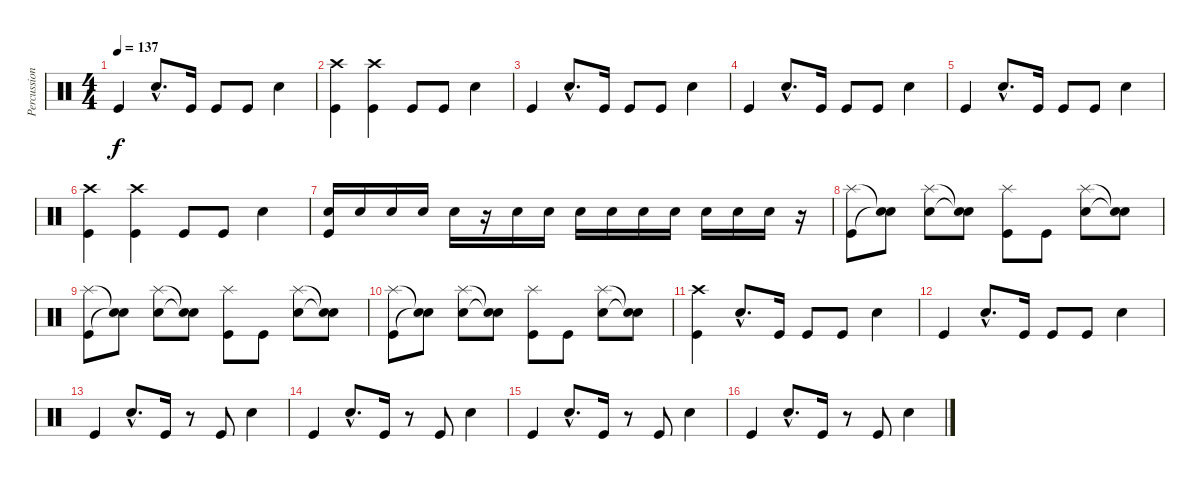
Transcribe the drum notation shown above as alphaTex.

\track ("Percussion" "Percussion") {instrument percussion}
\staff {score}
\articulation defaults
\ts (4 4)
\tempo 137
\clef neutral
\ks c "Kick (hit)".4{dy f} "Snare (hit) 2"{hac}.8{d} "Kick (hit)".16 "Kick (hit)".8 "Kick (hit)".8 "Snare (hit) 2".4
|
("Crash high (hit)" "Kick (hit)").4 ("Crash high (hit)" "Kick (hit)").4 "Kick (hit)".8 "Kick (hit)".8 "Snare (hit) 2".4 |
"Kick (hit)".4 "Snare (hit) 2"{hac}.8{d} "Kick (hit)".16 "Kick (hit)".8 "Kick (hit)".8 "Snare (hit) 2".4 |
"Kick (hit)".4 "Snare (hit) 2"{hac}.8{d} "Kick (hit)".16 "Kick (hit)".8 "Kick (hit)".8 "Snare (hit) 2".4 |
"Kick (hit)".4 "Snare (hit) 2"{hac}.8{d} "Kick (hit)".16 "Kick (hit)".8 "Kick (hit)".8 "Snare (hit) 2".4 |
("Crash high (hit)" "Kick (hit)").4 ("Crash high (hit)" "Kick (hit)").4 "Kick (hit)".8 "Kick (hit)".8 "Snare (hit) 2".4 |
("Snare (hit) 2" "Kick (hit)").16 "Snare (hit) 2".16 "Snare (hit) 2".16 "Snare (hit) 2".16 "Snare (hit) 2".16 r.16 "Snare (hit) 2".16 "Snare (hit) 2".16 "Snare (hit) 2".16 "Snare (hit) 2".16 "Snare (hit) 2".16 "Snare (hit) 2".16 "Snare (hit) 2".16 "Snare (hit) 2".16 "Snare (hit) 2".16 r.16 |
("Splash (hit)" "Kick (hit)").8 ("Snare (hit)"{t} "Snare (hit)"{t}).8 ("Splash (hit)" "Snare (hit) 2").8 ("Snare (hit)"{t} "Snare (hit)"{t}).8 ("Splash (hit)" "Kick (hit)").8 "Kick (hit)".8 ("Splash (hit)" "Snare (hit) 2").8 ("Snare (hit)"{t} "Snare (hit)"{t}).8 |
("Splash (hit)" "Kick (hit)").8 ("Snare (hit)"{t} "Snare (hit)"{t}).8 ("Splash (hit)" "Snare (hit) 2").8 ("Snare (hit)"{t} "Snare (hit)"{t}).8 ("Splash (hit)" "Kick (hit)").8 "Kick (hit)".8 ("Splash (hit)" "Snare (hit) 2").8 ("Snare (hit)"{t} "Snare (hit)"{t}).8 |
("Splash (hit)" "Kick (hit)").8 ("Snare (hit)"{t} "Snare (hit)"{t}).8 ("Splash (hit)" "Snare (hit) 2").8 ("Snare (hit)"{t} "Snare (hit)"{t}).8 ("Splash (hit)" "Kick (hit)").8 "Kick (hit)".8 ("Splash (hit)" "Snare (hit) 2").8 ("Snare (hit)"{t} "Snare (hit)"{t}).8 |
("Crash high (hit)" "Kick (hit)").4 "Snare (hit) 2"{hac}.8{d} "Kick (hit)".16 "Kick (hit)".8 "Kick (hit)".8 "Snare (hit) 2".4 |
"Kick (hit)".4 "Snare (hit) 2"{hac}.8{d} "Kick (hit)".16 "Kick (hit)".8 "Kick (hit)".8 "Snare (hit) 2".4 |
"Kick (hit)".4 "Snare (hit) 2"{hac}.8{d} "Kick (hit)".16 r.8 "Kick (hit)".8 "Snare (hit) 2".4 |
"Kick (hit)".4 "Snare (hit) 2"{hac}.8{d} "Kick (hit)".16 r.8 "Kick (hit)".8 "Snare (hit) 2".4 |
"Kick (hit)".4 "Snare (hit) 2"{hac}.8{d} "Kick (hit)".16 r.8 "Kick (hit)".8 "Snare (hit) 2".4 |
"Kick (hit)".4 "Snare (hit) 2"{hac}.8{d} "Kick (hit)".16 r.8 "Kick (hit)".8 "Snare (hit) 2".4
